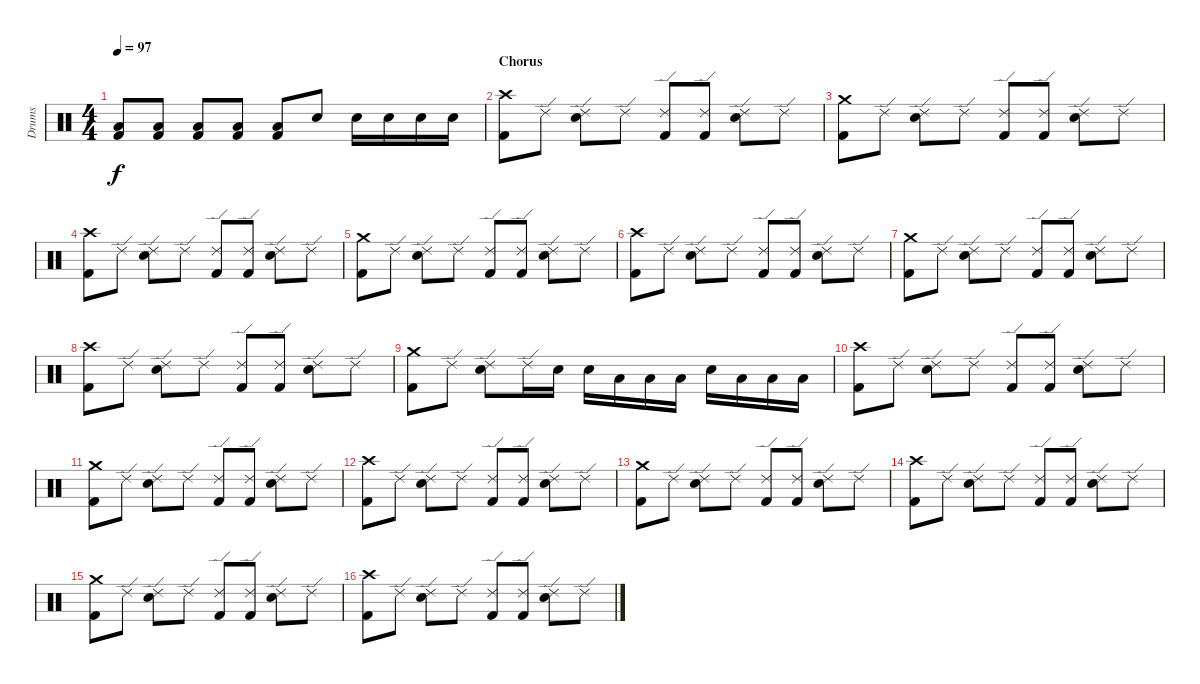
\track ("Drums" "Drums") {instrument percussion}
\staff {score}
\articulation defaults
\ts (4 4)
\tempo 97
\clef neutral
\ks c
("Low Tom (hit)" "Kick (hit) 2").8{dy f} ("Low Tom (hit)" "Kick (hit) 2").8 ("Low Tom (hit)" "Kick (hit) 2").8 ("Low Tom (hit)" "Kick (hit) 2").8 ("Low Tom (hit)" "Kick (hit) 2").8 "Snare (hit) 2".8 "Snare (hit) 2".16 "Snare (hit) 2".16 "Snare (hit) 2".16 "Snare (hit) 2".16 |
\section ("" "Chorus")
("Crash high (hit)" "Kick (hit) 2").8 "Ride (edge) 2".8 ("Ride (edge) 2" "Snare (hit) 2").8 "Ride (edge) 2".8 ("Ride (edge) 2" "Kick (hit) 2").8 ("Ride (edge) 2" "Kick (hit) 2").8 ("Ride (edge) 2" "Snare (hit) 2").8 "Ride (edge) 2".8 |
("Crash medium (hit)" "Kick (hit) 2").8 "Ride (edge) 2".8 ("Ride (edge) 2" "Snare (hit) 2").8 "Ride (edge) 2".8 ("Ride (edge) 2" "Kick (hit) 2").8 ("Ride (edge) 2" "Kick (hit) 2").8 ("Ride (edge) 2" "Snare (hit) 2").8 "Ride (edge) 2".8 |
("Crash high (hit)" "Kick (hit) 2").8 "Ride (edge) 2".8 ("Ride (edge) 2" "Snare (hit) 2").8 "Ride (edge) 2".8 ("Ride (edge) 2" "Kick (hit) 2").8 ("Ride (edge) 2" "Kick (hit) 2").8 ("Ride (edge) 2" "Snare (hit) 2").8 "Ride (edge) 2".8 |
("Crash medium (hit)" "Kick (hit) 2").8 "Ride (edge) 2".8 ("Ride (edge) 2" "Snare (hit) 2").8 "Ride (edge) 2".8 ("Ride (edge) 2" "Kick (hit) 2").8 ("Ride (edge) 2" "Kick (hit) 2").8 ("Ride (edge) 2" "Snare (hit) 2").8 "Ride (edge) 2".8 |
("Crash high (hit)" "Kick (hit) 2").8 "Ride (edge) 2".8 ("Ride (edge) 2" "Snare (hit) 2").8 "Ride (edge) 2".8 ("Ride (edge) 2" "Kick (hit) 2").8 ("Ride (edge) 2" "Kick (hit) 2").8 ("Ride (edge) 2" "Snare (hit) 2").8 "Ride (edge) 2".8 |
("Crash medium (hit)" "Kick (hit) 2").8 "Ride (edge) 2".8 ("Ride (edge) 2" "Snare (hit) 2").8 "Ride (edge) 2".8 ("Ride (edge) 2" "Kick (hit) 2").8 ("Ride (edge) 2" "Kick (hit) 2").8 ("Ride (edge) 2" "Snare (hit) 2").8 "Ride (edge) 2".8 |
("Crash high (hit)" "Kick (hit) 2").8 "Ride (edge) 2".8 ("Ride (edge) 2" "Snare (hit) 2").8 "Ride (edge) 2".8 ("Ride (edge) 2" "Kick (hit) 2").8 ("Ride (edge) 2" "Kick (hit) 2").8 ("Ride (edge) 2" "Snare (hit) 2").8 "Ride (edge) 2".8 |
("Crash medium (hit)" "Kick (hit) 2").8 "Ride (edge) 2".8 ("Ride (edge) 2" "Snare (hit) 2").8 "Ride (edge) 2".16 "Snare (hit) 2".16 "Snare (hit) 2".16 "Low Tom (hit)".16 "Low Tom (hit)".16 "Low Tom (hit)".16 "Snare (hit) 2".16 "Low Tom (hit)".16 "Low Tom (hit)".16 "Low Tom (hit)".16 |
("Crash high (hit)" "Kick (hit) 2").8 "Ride (edge) 2".8 ("Ride (edge) 2" "Snare (hit) 2").8 "Ride (edge) 2".8 ("Ride (edge) 2" "Kick (hit) 2").8 ("Ride (edge) 2" "Kick (hit) 2").8 ("Ride (edge) 2" "Snare (hit) 2").8 "Ride (edge) 2".8 |
("Crash medium (hit)" "Kick (hit) 2").8 "Ride (edge) 2".8 ("Ride (edge) 2" "Snare (hit) 2").8 "Ride (edge) 2".8 ("Ride (edge) 2" "Kick (hit) 2").8 ("Ride (edge) 2" "Kick (hit) 2").8 ("Ride (edge) 2" "Snare (hit) 2").8 "Ride (edge) 2".8 |
("Crash high (hit)" "Kick (hit) 2").8 "Ride (edge) 2".8 ("Ride (edge) 2" "Snare (hit) 2").8 "Ride (edge) 2".8 ("Ride (edge) 2" "Kick (hit) 2").8 ("Ride (edge) 2" "Kick (hit) 2").8 ("Ride (edge) 2" "Snare (hit) 2").8 "Ride (edge) 2".8 |
("Crash medium (hit)" "Kick (hit) 2").8 "Ride (edge) 2".8 ("Ride (edge) 2" "Snare (hit) 2").8 "Ride (edge) 2".8 ("Ride (edge) 2" "Kick (hit) 2").8 ("Ride (edge) 2" "Kick (hit) 2").8 ("Ride (edge) 2" "Snare (hit) 2").8 "Ride (edge) 2".8 |
("Crash high (hit)" "Kick (hit) 2").8 "Ride (edge) 2".8 ("Ride (edge) 2" "Snare (hit) 2").8 "Ride (edge) 2".8 ("Ride (edge) 2" "Kick (hit) 2").8 ("Ride (edge) 2" "Kick (hit) 2").8 ("Ride (edge) 2" "Snare (hit) 2").8 "Ride (edge) 2".8 |
("Crash medium (hit)" "Kick (hit) 2").8 "Ride (edge) 2".8 ("Ride (edge) 2" "Snare (hit) 2").8 "Ride (edge) 2".8 ("Ride (edge) 2" "Kick (hit) 2").8 ("Ride (edge) 2" "Kick (hit) 2").8 ("Ride (edge) 2" "Snare (hit) 2").8 "Ride (edge) 2".8 |
("Crash high (hit)" "Kick (hit) 2").8 "Ride (edge) 2".8 ("Ride (edge) 2" "Snare (hit) 2").8 "Ride (edge) 2".8 ("Ride (edge) 2" "Kick (hit) 2").8 ("Ride (edge) 2" "Kick (hit) 2").8 ("Ride (edge) 2" "Snare (hit) 2").8 "Ride (edge) 2".8
